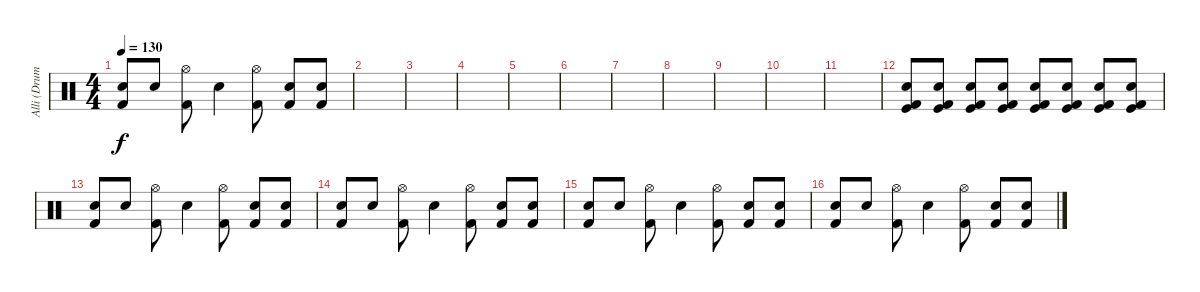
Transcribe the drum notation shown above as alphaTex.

\track ("Alli (Drums)" "Alli (Drum") {instrument percussion}
\staff {score}
\articulation defaults
\ts (4 4)
\tempo 130
\clef neutral
\ks c
("Snare (hit) 2" "Kick (hit) 2").8{dy f} "Snare (hit) 2".8 ("Hi-Hat (open)" "Kick (hit) 2").8 "Snare (hit) 2".4 ("Hi-Hat (open)" "Kick (hit) 2").8 ("Snare (hit) 2" "Kick (hit) 2").8 ("Snare (hit) 2" "Kick (hit) 2").8 |
|
|
|
|
|
|
|
|
|
|
("Kick (hit)" "Snare (hit) 2" "Kick (hit) 2").8 ("Kick (hit)" "Snare (hit) 2" "Kick (hit) 2").8 ("Kick (hit)" "Snare (hit) 2" "Kick (hit) 2").8 ("Kick (hit)" "Snare (hit) 2" "Kick (hit) 2").8 ("Kick (hit)" "Snare (hit) 2" "Kick (hit) 2").8 ("Kick (hit)" "Snare (hit) 2" "Kick (hit) 2").8 ("Kick (hit)" "Snare (hit) 2" "Kick (hit) 2").8 ("Kick (hit)" "Snare (hit) 2" "Kick (hit) 2").8 |
("Snare (hit) 2" "Kick (hit) 2").8 "Snare (hit) 2".8 ("Hi-Hat (open)" "Kick (hit) 2").8 "Snare (hit) 2".4 ("Hi-Hat (open)" "Kick (hit) 2").8 ("Snare (hit) 2" "Kick (hit) 2").8 ("Snare (hit) 2" "Kick (hit) 2").8 |
("Snare (hit) 2" "Kick (hit) 2").8 "Snare (hit) 2".8 ("Hi-Hat (open)" "Kick (hit) 2").8 "Snare (hit) 2".4 ("Hi-Hat (open)" "Kick (hit) 2").8 ("Snare (hit) 2" "Kick (hit) 2").8 ("Snare (hit) 2" "Kick (hit) 2").8 |
("Snare (hit) 2" "Kick (hit) 2").8 "Snare (hit) 2".8 ("Hi-Hat (open)" "Kick (hit) 2").8 "Snare (hit) 2".4 ("Hi-Hat (open)" "Kick (hit) 2").8 ("Snare (hit) 2" "Kick (hit) 2").8 ("Snare (hit) 2" "Kick (hit) 2").8 |
("Snare (hit) 2" "Kick (hit) 2").8 "Snare (hit) 2".8 ("Hi-Hat (open)" "Kick (hit) 2").8 "Snare (hit) 2".4 ("Hi-Hat (open)" "Kick (hit) 2").8 ("Snare (hit) 2" "Kick (hit) 2").8 ("Snare (hit) 2" "Kick (hit) 2").8
